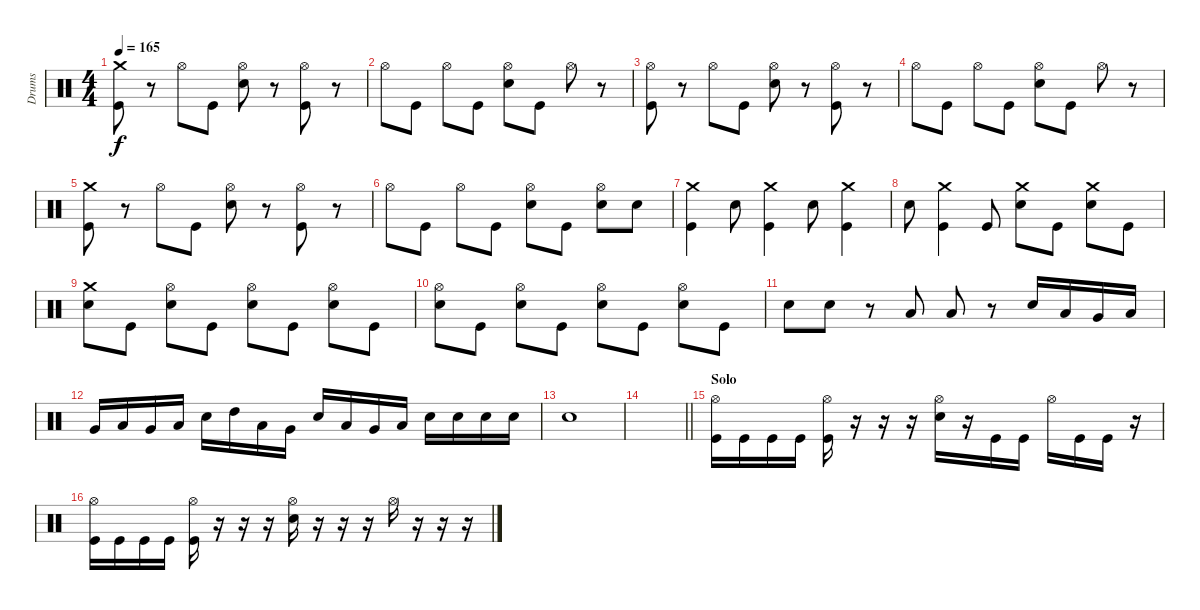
\track ("Drums" "Drums") {instrument percussion}
\staff {score}
\articulation defaults
\ts (4 4)
\tempo 165
\clef neutral
\ks c
("Crash medium (hit)" "Kick (hit)").8{dy f} r.8 "Hi-Hat (open)".8 "Kick (hit)".8 ("Hi-Hat (open)" "Electric Snare (hit)").8 r.8 ("Hi-Hat (open)" "Kick (hit)").8 r.8 |
"Hi-Hat (open)".8 "Kick (hit)".8 "Hi-Hat (open)".8 "Kick (hit)".8 ("Hi-Hat (open)" "Electric Snare (hit)").8 "Kick (hit)".8 "Hi-Hat (open)".8 r.8 |
("Hi-Hat (open)" "Kick (hit)").8 r.8 "Hi-Hat (open)".8 "Kick (hit)".8 ("Hi-Hat (open)" "Electric Snare (hit)").8 r.8 ("Hi-Hat (open)" "Kick (hit)").8 r.8 |
"Hi-Hat (open)".8 "Kick (hit)".8 "Hi-Hat (open)".8 "Kick (hit)".8 ("Hi-Hat (open)" "Electric Snare (hit)").8 "Kick (hit)".8 "Hi-Hat (open)".8 r.8 |
("Crash medium (hit)" "Kick (hit)").8 r.8 "Hi-Hat (open)".8 "Kick (hit)".8 ("Hi-Hat (open)" "Electric Snare (hit)").8 r.8 ("Hi-Hat (open)" "Kick (hit)").8 r.8 |
"Hi-Hat (open)".8 "Kick (hit)".8 "Hi-Hat (open)".8 "Kick (hit)".8 ("Hi-Hat (open)" "Electric Snare (hit)").8 "Kick (hit)".8 ("Hi-Hat (open)" "Electric Snare (hit)").8 "Electric Snare (hit)".8 |
("Crash medium (hit)" "Kick (hit)").4 "Electric Snare (hit)".8 ("Crash medium (hit)" "Kick (hit)").4 "Electric Snare (hit)".8 ("Crash medium (hit)" "Kick (hit)").4 |
"Electric Snare (hit)".8 ("Crash medium (hit)" "Kick (hit)").4 "Kick (hit)".8 ("Crash medium (hit)" "Electric Snare (hit)").8 "Kick (hit)".8 ("Crash medium (hit)" "Electric Snare (hit)").8 "Kick (hit)".8 |
("Crash medium (hit)" "Electric Snare (hit)").8 "Kick (hit)".8 ("Hi-Hat (open)" "Electric Snare (hit)").8 "Kick (hit)".8 ("Hi-Hat (open)" "Electric Snare (hit)").8 "Kick (hit)".8 ("Hi-Hat (open)" "Electric Snare (hit)").8 "Kick (hit)".8 |
("Hi-Hat (open)" "Electric Snare (hit)").8 "Kick (hit)".8 ("Hi-Hat (open)" "Electric Snare (hit)").8 "Kick (hit)".8 ("Hi-Hat (open)" "Electric Snare (hit)").8 "Kick (hit)".8 ("Hi-Hat (open)" "Electric Snare (hit)").8 "Kick (hit)".8 |
"Electric Snare (hit)".8 "Electric Snare (hit)".8 r.8 "Low Floor Tom (hit)".8 "Low Floor Tom (hit)".8 r.8 "Electric Snare (hit)".16 "Low Floor Tom (hit)".16 "Very Low Tom (hit)".16 "Low Tom (hit)".16 |
"Very Low Tom (hit)".16 "Low Floor Tom (hit)".16 "Very Low Tom (hit)".16 "Low Tom (hit)".16 "Electric Snare (hit)".16 "High Tom (hit)".16 "Low Tom (hit)".16 "Very Low Tom (hit)".16 "Electric Snare (hit)".16 "Low Floor Tom (hit)".16 "Very Low Tom (hit)".16 "Low Tom (hit)".16 "Electric Snare (hit)".16 "Electric Snare (hit)".16 "Electric Snare (hit)".16 "Electric Snare (hit)".16 |
"Electric Snare (hit)".1 |
\barLineRight lightlight
|
\section ("" "Solo")
("Hi-Hat (open)" "Kick (hit)").16 "Kick (hit)".16 "Kick (hit)".16 "Kick (hit)".16 ("Hi-Hat (open)" "Kick (hit)").16 r.16 r.16 r.16 ("Hi-Hat (open)" "Electric Snare (hit)").16 r.16 "Kick (hit)".16 "Kick (hit)".16 "Hi-Hat (open)".16 "Kick (hit)".16 "Kick (hit)".16 r.16 |
("Hi-Hat (open)" "Kick (hit)").16 "Kick (hit)".16 "Kick (hit)".16 "Kick (hit)".16 ("Hi-Hat (open)" "Kick (hit)").16 r.16 r.16 r.16 ("Hi-Hat (open)" "Electric Snare (hit)").16 r.16 r.16 r.16 "Hi-Hat (open)".16 r.16 r.16 r.16
